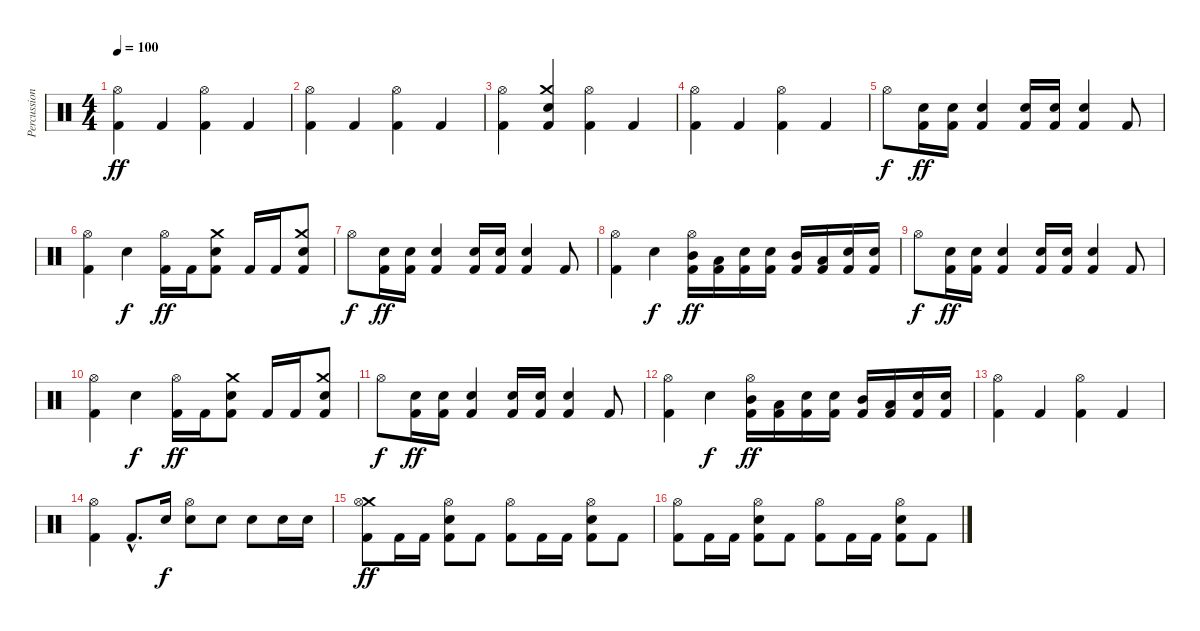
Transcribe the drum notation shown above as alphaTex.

\track ("Percussion" "Percussion") {instrument percussion}
\staff {score}
\articulation defaults
\ts (4 4)
\tempo 100
\clef neutral
\ks c
("Hi-Hat (open)" "Kick (hit) 2").4{dy ff} "Kick (hit) 2".4 ("Hi-Hat (open)" "Kick (hit) 2").4 "Kick (hit) 2".4 |
("Hi-Hat (open)" "Kick (hit) 2").4 "Kick (hit) 2".4 ("Hi-Hat (open)" "Kick (hit) 2").4 "Kick (hit) 2".4 |
("Hi-Hat (open)" "Kick (hit) 2").4 ("Crash medium (hit)" "Electric Snare (hit)" "Kick (hit) 2").4 ("Hi-Hat (open)" "Kick (hit) 2").4 "Kick (hit) 2".4 |
("Hi-Hat (open)" "Kick (hit) 2").4 "Kick (hit) 2".4 ("Hi-Hat (open)" "Kick (hit) 2").4 "Kick (hit) 2".4 |
"Hi-Hat (open)".8{dy f} ("Electric Snare (hit)" "Kick (hit) 2").16{dy ff} ("Electric Snare (hit)" "Kick (hit) 2").16 ("Electric Snare (hit)" "Kick (hit) 2").4 ("Electric Snare (hit)" "Kick (hit) 2").16 ("Electric Snare (hit)" "Kick (hit) 2").16 ("Electric Snare (hit)" "Kick (hit) 2").4 "Kick (hit) 2".8 |
("Hi-Hat (open)" "Kick (hit) 2").4 "Electric Snare (hit)".4{dy f} ("Hi-Hat (open)" "Kick (hit) 2").16{dy ff} "Kick (hit) 2".16 ("Crash medium (hit)" "Electric Snare (hit)" "Kick (hit) 2").8 "Kick (hit) 2".16 "Kick (hit) 2".16 ("Crash medium (hit)" "Electric Snare (hit)" "Kick (hit) 2").8 |
"Hi-Hat (open)".8{dy f} ("Electric Snare (hit)" "Kick (hit) 2").16{dy ff} ("Electric Snare (hit)" "Kick (hit) 2").16 ("Electric Snare (hit)" "Kick (hit) 2").4 ("Electric Snare (hit)" "Kick (hit) 2").16 ("Electric Snare (hit)" "Kick (hit) 2").16 ("Electric Snare (hit)" "Kick (hit) 2").4 "Kick (hit) 2".8 |
("Hi-Hat (open)" "Kick (hit) 2").4 "Electric Snare (hit)".4{dy f} ("Hi-Hat (open)" "Mid Tom (hit)" "Kick (hit) 2").16{dy ff} ("Low Tom (hit)" "Kick (hit) 2").16 ("Electric Snare (hit)" "Kick (hit) 2").16 ("Electric Snare (hit)" "Kick (hit) 2").16 ("Mid Tom (hit)" "Kick (hit) 2").16 ("Low Tom (hit)" "Kick (hit) 2").16 ("Electric Snare (hit)" "Kick (hit) 2").16 ("Electric Snare (hit)" "Kick (hit) 2").16 |
"Hi-Hat (open)".8{dy f} ("Electric Snare (hit)" "Kick (hit) 2").16{dy ff} ("Electric Snare (hit)" "Kick (hit) 2").16 ("Electric Snare (hit)" "Kick (hit) 2").4 ("Electric Snare (hit)" "Kick (hit) 2").16 ("Electric Snare (hit)" "Kick (hit) 2").16 ("Electric Snare (hit)" "Kick (hit) 2").4 "Kick (hit) 2".8 |
("Hi-Hat (open)" "Kick (hit) 2").4 "Electric Snare (hit)".4{dy f} ("Hi-Hat (open)" "Kick (hit) 2").16{dy ff} "Kick (hit) 2".16 ("Crash medium (hit)" "Electric Snare (hit)" "Kick (hit) 2").8 "Kick (hit) 2".16 "Kick (hit) 2".16 ("Crash medium (hit)" "Electric Snare (hit)" "Kick (hit) 2").8 |
"Hi-Hat (open)".8{dy f} ("Electric Snare (hit)" "Kick (hit) 2").16{dy ff} ("Electric Snare (hit)" "Kick (hit) 2").16 ("Electric Snare (hit)" "Kick (hit) 2").4 ("Electric Snare (hit)" "Kick (hit) 2").16 ("Electric Snare (hit)" "Kick (hit) 2").16 ("Electric Snare (hit)" "Kick (hit) 2").4 "Kick (hit) 2".8 |
("Hi-Hat (open)" "Kick (hit) 2").4 "Electric Snare (hit)".4{dy f} ("Hi-Hat (open)" "Mid Tom (hit)" "Kick (hit) 2").16{dy ff} ("Low Tom (hit)" "Kick (hit) 2").16 ("Electric Snare (hit)" "Kick (hit) 2").16 ("Electric Snare (hit)" "Kick (hit) 2").16 ("Mid Tom (hit)" "Kick (hit) 2").16 ("Low Tom (hit)" "Kick (hit) 2").16 ("Electric Snare (hit)" "Kick (hit) 2").16 ("Electric Snare (hit)" "Kick (hit) 2").16 |
("Hi-Hat (open)" "Kick (hit) 2").4 "Kick (hit) 2".4 ("Hi-Hat (open)" "Kick (hit) 2").4 "Kick (hit) 2".4 |
("Hi-Hat (open)" "Kick (hit) 2").4 "Kick (hit) 2"{hac}.8{d} "Electric Snare (hit)".16{dy f} ("Hi-Hat (open)" "Electric Snare (hit)").8 "Electric Snare (hit)".8 "Electric Snare (hit)".8 "Electric Snare (hit)".16 "Electric Snare (hit)".16 |
("Crash medium (hit)" "Hi-Hat (open)" "Kick (hit) 2").8{dy ff} "Kick (hit) 2".16 "Kick (hit) 2".16 ("Hi-Hat (open)" "Electric Snare (hit)" "Kick (hit) 2").8 "Kick (hit) 2".8 ("Hi-Hat (open)" "Kick (hit) 2").8 "Kick (hit) 2".16 "Kick (hit) 2".16 ("Hi-Hat (open)" "Electric Snare (hit)" "Kick (hit) 2").8 "Kick (hit) 2".8 |
("Hi-Hat (open)" "Kick (hit) 2").8 "Kick (hit) 2".16 "Kick (hit) 2".16 ("Hi-Hat (open)" "Electric Snare (hit)" "Kick (hit) 2").8 "Kick (hit) 2".8 ("Hi-Hat (open)" "Kick (hit) 2").8 "Kick (hit) 2".16 "Kick (hit) 2".16 ("Hi-Hat (open)" "Electric Snare (hit)" "Kick (hit) 2").8 "Kick (hit) 2".8
